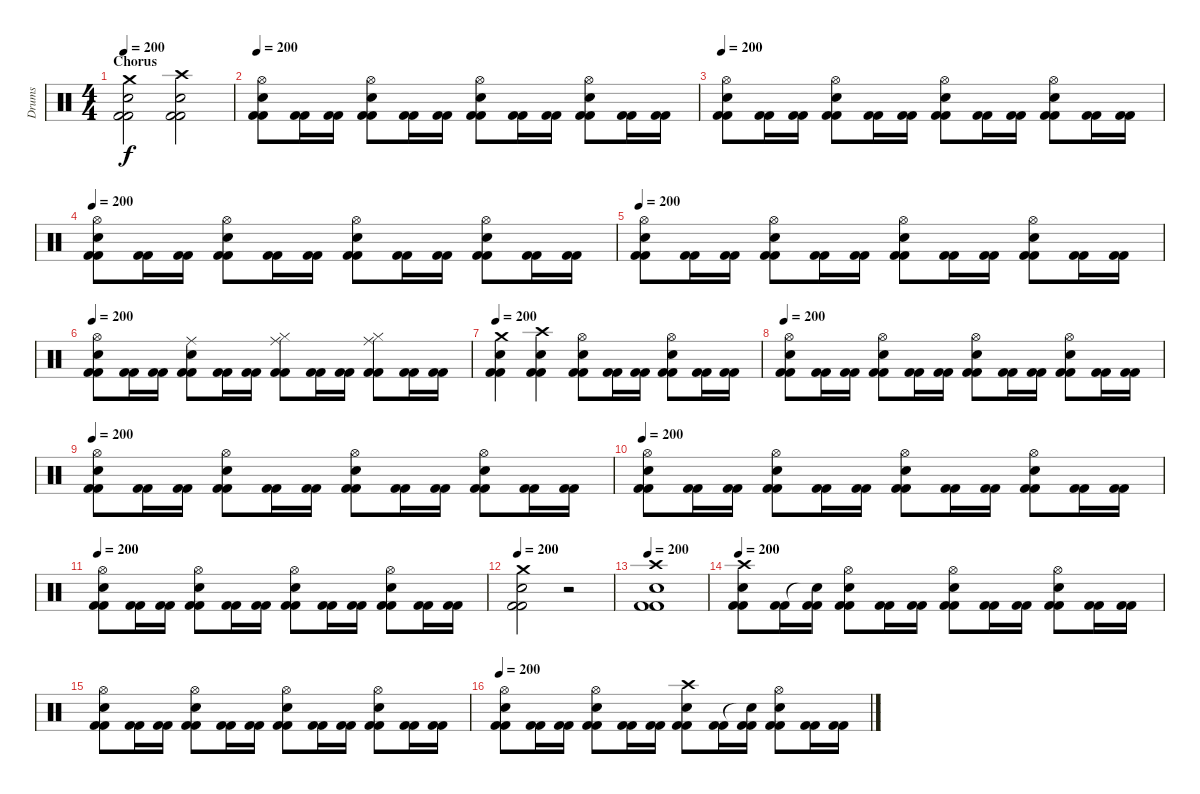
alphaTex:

\track ("Drums" "Drums") {instrument percussion}
\staff {score}
\articulation defaults
\ts (4 4)
\section ("" "Chorus")
\tempo 200
\clef neutral
\ks c
("Crash medium (hit)" "Snare (hit) 2" "Kick (hit) 2" "Kick (hit) 2").2{dy f} ("Crash high (hit)" "Snare (hit) 2" "Kick (hit) 2" "Kick (hit) 2").2 |
\tempo 200
("Hi-Hat (open)" "Snare (hit) 2" "Kick (hit) 2" "Kick (hit) 2").8 ("Kick (hit) 2" "Kick (hit) 2").16 ("Kick (hit) 2" "Kick (hit) 2").16 ("Hi-Hat (open)" "Snare (hit) 2" "Kick (hit) 2" "Kick (hit) 2").8 ("Kick (hit) 2" "Kick (hit) 2").16 ("Kick (hit) 2" "Kick (hit) 2").16 ("Hi-Hat (open)" "Snare (hit) 2" "Kick (hit) 2" "Kick (hit) 2").8 ("Kick (hit) 2" "Kick (hit) 2").16 ("Kick (hit) 2" "Kick (hit) 2").16 ("Hi-Hat (open)" "Snare (hit) 2" "Kick (hit) 2" "Kick (hit) 2").8 ("Kick (hit) 2" "Kick (hit) 2").16 ("Kick (hit) 2" "Kick (hit) 2").16 |
\tempo 200
("Hi-Hat (open)" "Snare (hit) 2" "Kick (hit) 2" "Kick (hit) 2").8 ("Kick (hit) 2" "Kick (hit) 2").16 ("Kick (hit) 2" "Kick (hit) 2").16 ("Hi-Hat (open)" "Snare (hit) 2" "Kick (hit) 2" "Kick (hit) 2").8 ("Kick (hit) 2" "Kick (hit) 2").16 ("Kick (hit) 2" "Kick (hit) 2").16 ("Hi-Hat (open)" "Snare (hit) 2" "Kick (hit) 2" "Kick (hit) 2").8 ("Kick (hit) 2" "Kick (hit) 2").16 ("Kick (hit) 2" "Kick (hit) 2").16 ("Hi-Hat (open)" "Snare (hit) 2" "Kick (hit) 2" "Kick (hit) 2").8 ("Kick (hit) 2" "Kick (hit) 2").16 ("Kick (hit) 2" "Kick (hit) 2").16 |
\tempo 200
("Hi-Hat (open)" "Snare (hit) 2" "Kick (hit) 2" "Kick (hit) 2").8 ("Kick (hit) 2" "Kick (hit) 2").16 ("Kick (hit) 2" "Kick (hit) 2").16 ("Hi-Hat (open)" "Snare (hit) 2" "Kick (hit) 2" "Kick (hit) 2").8 ("Kick (hit) 2" "Kick (hit) 2").16 ("Kick (hit) 2" "Kick (hit) 2").16 ("Hi-Hat (open)" "Snare (hit) 2" "Kick (hit) 2" "Kick (hit) 2").8 ("Kick (hit) 2" "Kick (hit) 2").16 ("Kick (hit) 2" "Kick (hit) 2").16 ("Hi-Hat (open)" "Snare (hit) 2" "Kick (hit) 2" "Kick (hit) 2").8 ("Kick (hit) 2" "Kick (hit) 2").16 ("Kick (hit) 2" "Kick (hit) 2").16 |
\tempo 200
("Hi-Hat (open)" "Snare (hit) 2" "Kick (hit) 2" "Kick (hit) 2").8 ("Kick (hit) 2" "Kick (hit) 2").16 ("Kick (hit) 2" "Kick (hit) 2").16 ("Hi-Hat (open)" "Snare (hit) 2" "Kick (hit) 2" "Kick (hit) 2").8 ("Kick (hit) 2" "Kick (hit) 2").16 ("Kick (hit) 2" "Kick (hit) 2").16 ("Hi-Hat (open)" "Snare (hit) 2" "Kick (hit) 2" "Kick (hit) 2").8 ("Kick (hit) 2" "Kick (hit) 2").16 ("Kick (hit) 2" "Kick (hit) 2").16 ("Hi-Hat (open)" "Snare (hit) 2" "Kick (hit) 2" "Kick (hit) 2").8 ("Kick (hit) 2" "Kick (hit) 2").16 ("Kick (hit) 2" "Kick (hit) 2").16 |
\tempo 200
("Hi-Hat (open)" "Snare (hit) 2" "Kick (hit) 2" "Kick (hit) 2").8 ("Kick (hit) 2" "Kick (hit) 2").16 ("Kick (hit) 2" "Kick (hit) 2").16 ("Ride (middle)" "Snare (hit) 2" "Kick (hit) 2" "Kick (hit) 2").8 ("Kick (hit) 2" "Kick (hit) 2").16 ("Kick (hit) 2" "Kick (hit) 2").16 ("Ride (middle)" "Hi-Hat (closed)" "Kick (hit) 2" "Kick (hit) 2").8 ("Kick (hit) 2" "Kick (hit) 2").16 ("Kick (hit) 2" "Kick (hit) 2").16 ("Ride (middle)" "Hi-Hat (closed)" "Kick (hit) 2" "Kick (hit) 2").8 ("Kick (hit) 2" "Kick (hit) 2").16 ("Kick (hit) 2" "Kick (hit) 2").16 |
\tempo 200
("Crash medium (hit)" "Snare (hit) 2" "Kick (hit) 2" "Kick (hit) 2").4 ("Crash high (hit)" "Snare (hit) 2" "Kick (hit) 2" "Kick (hit) 2").4 ("Hi-Hat (open)" "Snare (hit) 2" "Kick (hit) 2" "Kick (hit) 2").8 ("Kick (hit) 2" "Kick (hit) 2").16 ("Kick (hit) 2" "Kick (hit) 2").16 ("Hi-Hat (open)" "Snare (hit) 2" "Kick (hit) 2" "Kick (hit) 2").8 ("Kick (hit) 2" "Kick (hit) 2").16 ("Kick (hit) 2" "Kick (hit) 2").16 |
\tempo 200
("Hi-Hat (open)" "Snare (hit) 2" "Kick (hit) 2" "Kick (hit) 2").8 ("Kick (hit) 2" "Kick (hit) 2").16 ("Kick (hit) 2" "Kick (hit) 2").16 ("Hi-Hat (open)" "Snare (hit) 2" "Kick (hit) 2" "Kick (hit) 2").8 ("Kick (hit) 2" "Kick (hit) 2").16 ("Kick (hit) 2" "Kick (hit) 2").16 ("Hi-Hat (open)" "Snare (hit) 2" "Kick (hit) 2" "Kick (hit) 2").8 ("Kick (hit) 2" "Kick (hit) 2").16 ("Kick (hit) 2" "Kick (hit) 2").16 ("Hi-Hat (open)" "Snare (hit) 2" "Kick (hit) 2" "Kick (hit) 2").8 ("Kick (hit) 2" "Kick (hit) 2").16 ("Kick (hit) 2" "Kick (hit) 2").16 |
\tempo 200
("Hi-Hat (open)" "Snare (hit) 2" "Kick (hit) 2" "Kick (hit) 2").8 ("Kick (hit) 2" "Kick (hit) 2").16 ("Kick (hit) 2" "Kick (hit) 2").16 ("Hi-Hat (open)" "Snare (hit) 2" "Kick (hit) 2" "Kick (hit) 2").8 ("Kick (hit) 2" "Kick (hit) 2").16 ("Kick (hit) 2" "Kick (hit) 2").16 ("Hi-Hat (open)" "Snare (hit) 2" "Kick (hit) 2" "Kick (hit) 2").8 ("Kick (hit) 2" "Kick (hit) 2").16 ("Kick (hit) 2" "Kick (hit) 2").16 ("Hi-Hat (open)" "Snare (hit) 2" "Kick (hit) 2" "Kick (hit) 2").8 ("Kick (hit) 2" "Kick (hit) 2").16 ("Kick (hit) 2" "Kick (hit) 2").16 |
\tempo 200
("Hi-Hat (open)" "Snare (hit) 2" "Kick (hit) 2" "Kick (hit) 2").8 ("Kick (hit) 2" "Kick (hit) 2").16 ("Kick (hit) 2" "Kick (hit) 2").16 ("Hi-Hat (open)" "Snare (hit) 2" "Kick (hit) 2" "Kick (hit) 2").8 ("Kick (hit) 2" "Kick (hit) 2").16 ("Kick (hit) 2" "Kick (hit) 2").16 ("Hi-Hat (open)" "Snare (hit) 2" "Kick (hit) 2" "Kick (hit) 2").8 ("Kick (hit) 2" "Kick (hit) 2").16 ("Kick (hit) 2" "Kick (hit) 2").16 ("Hi-Hat (open)" "Snare (hit) 2" "Kick (hit) 2" "Kick (hit) 2").8 ("Kick (hit) 2" "Kick (hit) 2").16 ("Kick (hit) 2" "Kick (hit) 2").16 |
\tempo 200
("Hi-Hat (open)" "Snare (hit) 2" "Kick (hit) 2" "Kick (hit) 2").8 ("Kick (hit) 2" "Kick (hit) 2").16 ("Kick (hit) 2" "Kick (hit) 2").16 ("Hi-Hat (open)" "Snare (hit) 2" "Kick (hit) 2" "Kick (hit) 2").8 ("Kick (hit) 2" "Kick (hit) 2").16 ("Kick (hit) 2" "Kick (hit) 2").16 ("Hi-Hat (open)" "Snare (hit) 2" "Kick (hit) 2" "Kick (hit) 2").8 ("Kick (hit) 2" "Kick (hit) 2").16 ("Kick (hit) 2" "Kick (hit) 2").16 ("Hi-Hat (open)" "Snare (hit) 2" "Kick (hit) 2" "Kick (hit) 2").8 ("Kick (hit) 2" "Kick (hit) 2").16 ("Kick (hit) 2" "Kick (hit) 2").16 |
\tempo 200
("Crash medium (hit)" "Snare (hit) 2" "Kick (hit) 2" "Kick (hit) 2").2 r.2 |
\tempo 200
("Crash high (hit)" "Snare (hit) 2" "Kick (hit) 2" "Kick (hit) 2").1 |
\tempo 200
("Crash high (hit)" "Snare (hit) 2" "Kick (hit) 2" "Kick (hit) 2").8 ("Kick (hit) 2" "Kick (hit) 2").16 ("Snare (hit)"{t} "Kick (hit) 2" "Kick (hit) 2").16 ("Hi-Hat (open)" "Snare (hit) 2" "Kick (hit) 2" "Kick (hit) 2").8 ("Kick (hit) 2" "Kick (hit) 2").16 ("Kick (hit) 2" "Kick (hit) 2").16 ("Hi-Hat (open)" "Snare (hit) 2" "Kick (hit) 2" "Kick (hit) 2").8 ("Kick (hit) 2" "Kick (hit) 2").16 ("Kick (hit) 2" "Kick (hit) 2").16 ("Hi-Hat (open)" "Snare (hit) 2" "Kick (hit) 2" "Kick (hit) 2").8 ("Kick (hit) 2" "Kick (hit) 2").16 ("Kick (hit) 2" "Kick (hit) 2").16 |
("Hi-Hat (open)" "Snare (hit) 2" "Kick (hit) 2" "Kick (hit) 2").8 ("Kick (hit) 2" "Kick (hit) 2").16 ("Kick (hit) 2" "Kick (hit) 2").16 ("Hi-Hat (open)" "Snare (hit) 2" "Kick (hit) 2" "Kick (hit) 2").8 ("Kick (hit) 2" "Kick (hit) 2").16 ("Kick (hit) 2" "Kick (hit) 2").16 ("Hi-Hat (open)" "Snare (hit) 2" "Kick (hit) 2" "Kick (hit) 2").8 ("Kick (hit) 2" "Kick (hit) 2").16 ("Kick (hit) 2" "Kick (hit) 2").16 ("Hi-Hat (open)" "Snare (hit) 2" "Kick (hit) 2" "Kick (hit) 2").8 ("Kick (hit) 2" "Kick (hit) 2").16 ("Kick (hit) 2" "Kick (hit) 2").16 |
\tempo 200
("Hi-Hat (open)" "Snare (hit) 2" "Kick (hit) 2" "Kick (hit) 2").8 ("Kick (hit) 2" "Kick (hit) 2").16 ("Kick (hit) 2" "Kick (hit) 2").16 ("Hi-Hat (open)" "Snare (hit) 2" "Kick (hit) 2" "Kick (hit) 2").8 ("Kick (hit) 2" "Kick (hit) 2").16 ("Kick (hit) 2" "Kick (hit) 2").16 ("Crash high (hit)" "Snare (hit) 2" "Kick (hit) 2" "Kick (hit) 2").8 ("Kick (hit) 2" "Kick (hit) 2").16 ("Snare (hit)"{t} "Kick (hit) 2" "Kick (hit) 2").16 ("Hi-Hat (open)" "Snare (hit) 2" "Kick (hit) 2" "Kick (hit) 2").8 ("Kick (hit) 2" "Kick (hit) 2").16 ("Kick (hit) 2" "Kick (hit) 2").16
